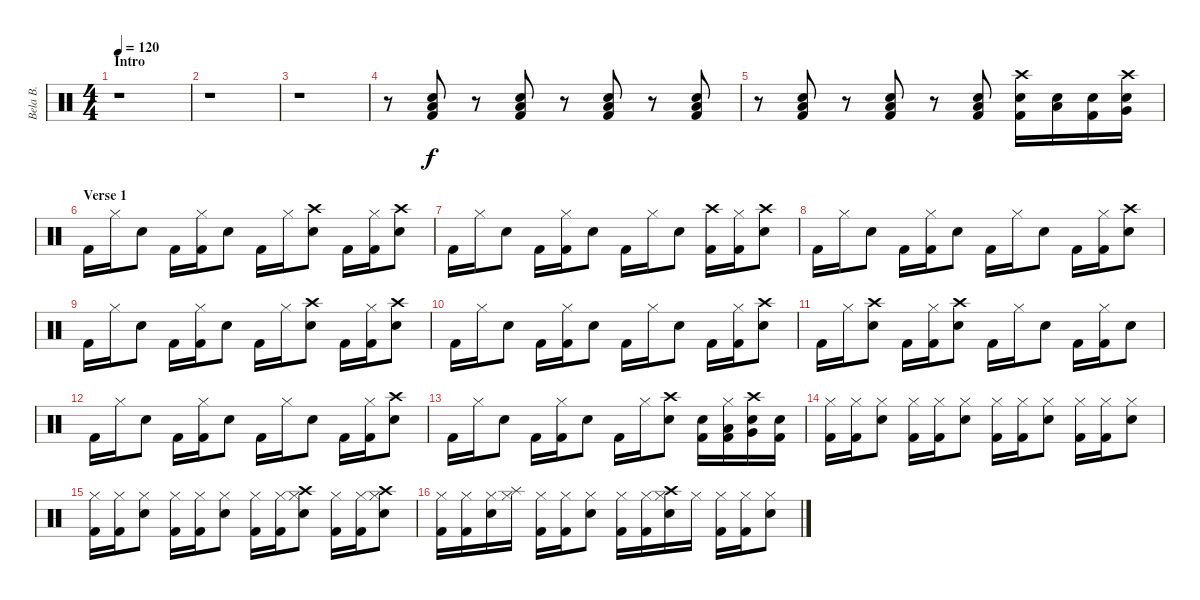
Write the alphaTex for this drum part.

\track ("Bela B." "Bela B.") {instrument percussion}
\staff {score}
\articulation defaults
\ts (4 4)
\section ("" "Intro")
\tempo 120
\clef neutral
\ks c
r.1{dy f} |
r.1 |
r.1 |
r.8 ("Electric Snare (hit)" "Low Floor Tom (hit)" "Kick (hit) 2").8 r.8 ("Electric Snare (hit)" "Low Floor Tom (hit)" "Kick (hit) 2").8 r.8 ("Electric Snare (hit)" "Low Floor Tom (hit)" "Kick (hit) 2").8 r.8 ("Electric Snare (hit)" "Low Floor Tom (hit)" "Kick (hit) 2").8 |
r.8 ("Electric Snare (hit)" "Low Floor Tom (hit)" "Kick (hit) 2").8 r.8 ("Electric Snare (hit)" "Low Floor Tom (hit)" "Kick (hit) 2").8 r.8 ("Electric Snare (hit)" "Low Floor Tom (hit)" "Kick (hit) 2").8 ("Crash high (hit)" "Electric Snare (hit)" "Kick (hit) 2").16 ("Electric Snare (hit)" "Low Floor Tom (hit)").16 ("Electric Snare (hit)" "Kick (hit) 2").16 ("Crash high (hit)" "Electric Snare (hit)" "Very Low Tom (hit)").16 |
\section ("" "Verse 1")
"Kick (hit) 2".16 "Hi-Hat (closed)".16 "Electric Snare (hit)".8 "Kick (hit) 2".16 ("Hi-Hat (closed)" "Kick (hit) 2").16 "Electric Snare (hit)".8 "Kick (hit) 2".16 "Hi-Hat (closed)".16 ("Crash high (hit)" "Electric Snare (hit)").8 "Kick (hit) 2".16 ("Hi-Hat (closed)" "Kick (hit) 2").16 ("Crash high (hit)" "Electric Snare (hit)").8 |
"Kick (hit) 2".16 "Hi-Hat (closed)".16 "Electric Snare (hit)".8 "Kick (hit) 2".16 ("Hi-Hat (closed)" "Kick (hit) 2").16 "Electric Snare (hit)".8 "Kick (hit) 2".16 "Hi-Hat (closed)".16 "Electric Snare (hit)".8 ("Crash high (hit)" "Kick (hit) 2").16 ("Hi-Hat (closed)" "Kick (hit) 2").16 ("Crash high (hit)" "Electric Snare (hit)").8 |
"Kick (hit) 2".16 "Hi-Hat (closed)".16 "Electric Snare (hit)".8 "Kick (hit) 2".16 ("Hi-Hat (closed)" "Kick (hit) 2").16 "Electric Snare (hit)".8 "Kick (hit) 2".16 "Hi-Hat (closed)".16 "Electric Snare (hit)".8 "Kick (hit) 2".16 ("Hi-Hat (closed)" "Kick (hit) 2").16 ("Crash high (hit)" "Electric Snare (hit)").8 |
"Kick (hit) 2".16 "Hi-Hat (closed)".16 "Electric Snare (hit)".8 "Kick (hit) 2".16 ("Hi-Hat (closed)" "Kick (hit) 2").16 "Electric Snare (hit)".8 "Kick (hit) 2".16 "Hi-Hat (closed)".16 ("Crash high (hit)" "Electric Snare (hit)").8 "Kick (hit) 2".16 ("Hi-Hat (closed)" "Kick (hit) 2").16 ("Crash high (hit)" "Electric Snare (hit)").8 |
"Kick (hit) 2".16 "Hi-Hat (closed)".16 "Electric Snare (hit)".8 "Kick (hit) 2".16 ("Hi-Hat (closed)" "Kick (hit) 2").16 "Electric Snare (hit)".8 "Kick (hit) 2".16 "Hi-Hat (closed)".16 "Electric Snare (hit)".8 "Kick (hit) 2".16 ("Hi-Hat (closed)" "Kick (hit) 2").16 ("Crash high (hit)" "Electric Snare (hit)").8 |
"Kick (hit) 2".16 "Hi-Hat (closed)".16 ("Crash high (hit)" "Electric Snare (hit)").8 "Kick (hit) 2".16 ("Hi-Hat (closed)" "Kick (hit) 2").16 ("Crash high (hit)" "Electric Snare (hit)").8 "Kick (hit) 2".16 "Hi-Hat (closed)".16 "Electric Snare (hit)".8 "Kick (hit) 2".16 ("Hi-Hat (closed)" "Kick (hit) 2").16 "Electric Snare (hit)".8 |
"Kick (hit) 2".16 "Hi-Hat (closed)".16 "Electric Snare (hit)".8 "Kick (hit) 2".16 ("Hi-Hat (closed)" "Kick (hit) 2").16 "Electric Snare (hit)".8 "Kick (hit) 2".16 "Hi-Hat (closed)".16 "Electric Snare (hit)".8 "Kick (hit) 2".16 ("Hi-Hat (closed)" "Kick (hit) 2").16 ("Crash high (hit)" "Electric Snare (hit)").8 |
"Kick (hit) 2".16 "Hi-Hat (closed)".16 "Electric Snare (hit)".8 "Kick (hit) 2".16 ("Hi-Hat (closed)" "Kick (hit) 2").16 "Electric Snare (hit)".8 "Kick (hit) 2".16 "Hi-Hat (closed)".16 ("Crash high (hit)" "Electric Snare (hit)").8 ("Electric Snare (hit)" "Kick (hit) 2").16 ("Hi-Hat (closed)" "Low Floor Tom (hit)" "Kick (hit) 2").16 ("Crash high (hit)" "Electric Snare (hit)" "Very Low Tom (hit)").16 ("Electric Snare (hit)" "Kick (hit) 2").16 |
("Hi-Hat (closed)" "Kick (hit) 2").16 ("Hi-Hat (closed)" "Kick (hit) 2").16 ("Hi-Hat (closed)" "Electric Snare (hit)").8 ("Hi-Hat (closed)" "Kick (hit) 2").16 ("Hi-Hat (closed)" "Kick (hit) 2").16 ("Hi-Hat (closed)" "Electric Snare (hit)").8 ("Hi-Hat (closed)" "Kick (hit) 2").16 ("Hi-Hat (closed)" "Kick (hit) 2").16 ("Hi-Hat (closed)" "Electric Snare (hit)").8 ("Hi-Hat (closed)" "Kick (hit) 2").16 ("Hi-Hat (closed)" "Kick (hit) 2").16 ("Hi-Hat (closed)" "Electric Snare (hit)").8 |
("Hi-Hat (closed)" "Kick (hit) 2").16 ("Hi-Hat (closed)" "Kick (hit) 2").16 ("Hi-Hat (closed)" "Electric Snare (hit)").8 ("Hi-Hat (closed)" "Kick (hit) 2").16 ("Hi-Hat (closed)" "Kick (hit) 2").16 ("Hi-Hat (closed)" "Electric Snare (hit)").8 ("Hi-Hat (closed)" "Kick (hit) 2").16 ("Hi-Hat (closed)" "Kick (hit) 2").16 ("Hi-Hat (closed)" "Crash high (hit)" "Electric Snare (hit)").8 ("Hi-Hat (closed)" "Kick (hit) 2").16 ("Hi-Hat (closed)" "Kick (hit) 2").16 ("Hi-Hat (closed)" "Crash high (hit)" "Electric Snare (hit)").8 |
("Hi-Hat (closed)" "Kick (hit) 2").16 ("Hi-Hat (closed)" "Kick (hit) 2").16 ("Hi-Hat (closed)" "Electric Snare (hit)").16 ("Hi-Hat (closed)" "Splash (hit)").16 ("Hi-Hat (closed)" "Kick (hit) 2").16 ("Hi-Hat (closed)" "Kick (hit) 2").16 ("Hi-Hat (closed)" "Electric Snare (hit)").8 ("Hi-Hat (closed)" "Kick (hit) 2").16 ("Hi-Hat (closed)" "Kick (hit) 2").16 ("Hi-Hat (closed)" "Crash high (hit)" "Electric Snare (hit)").16 "Hi-Hat (closed)".16 ("Hi-Hat (closed)" "Kick (hit) 2").16 ("Hi-Hat (closed)" "Kick (hit) 2").16 ("Hi-Hat (closed)" "Electric Snare (hit)").8
